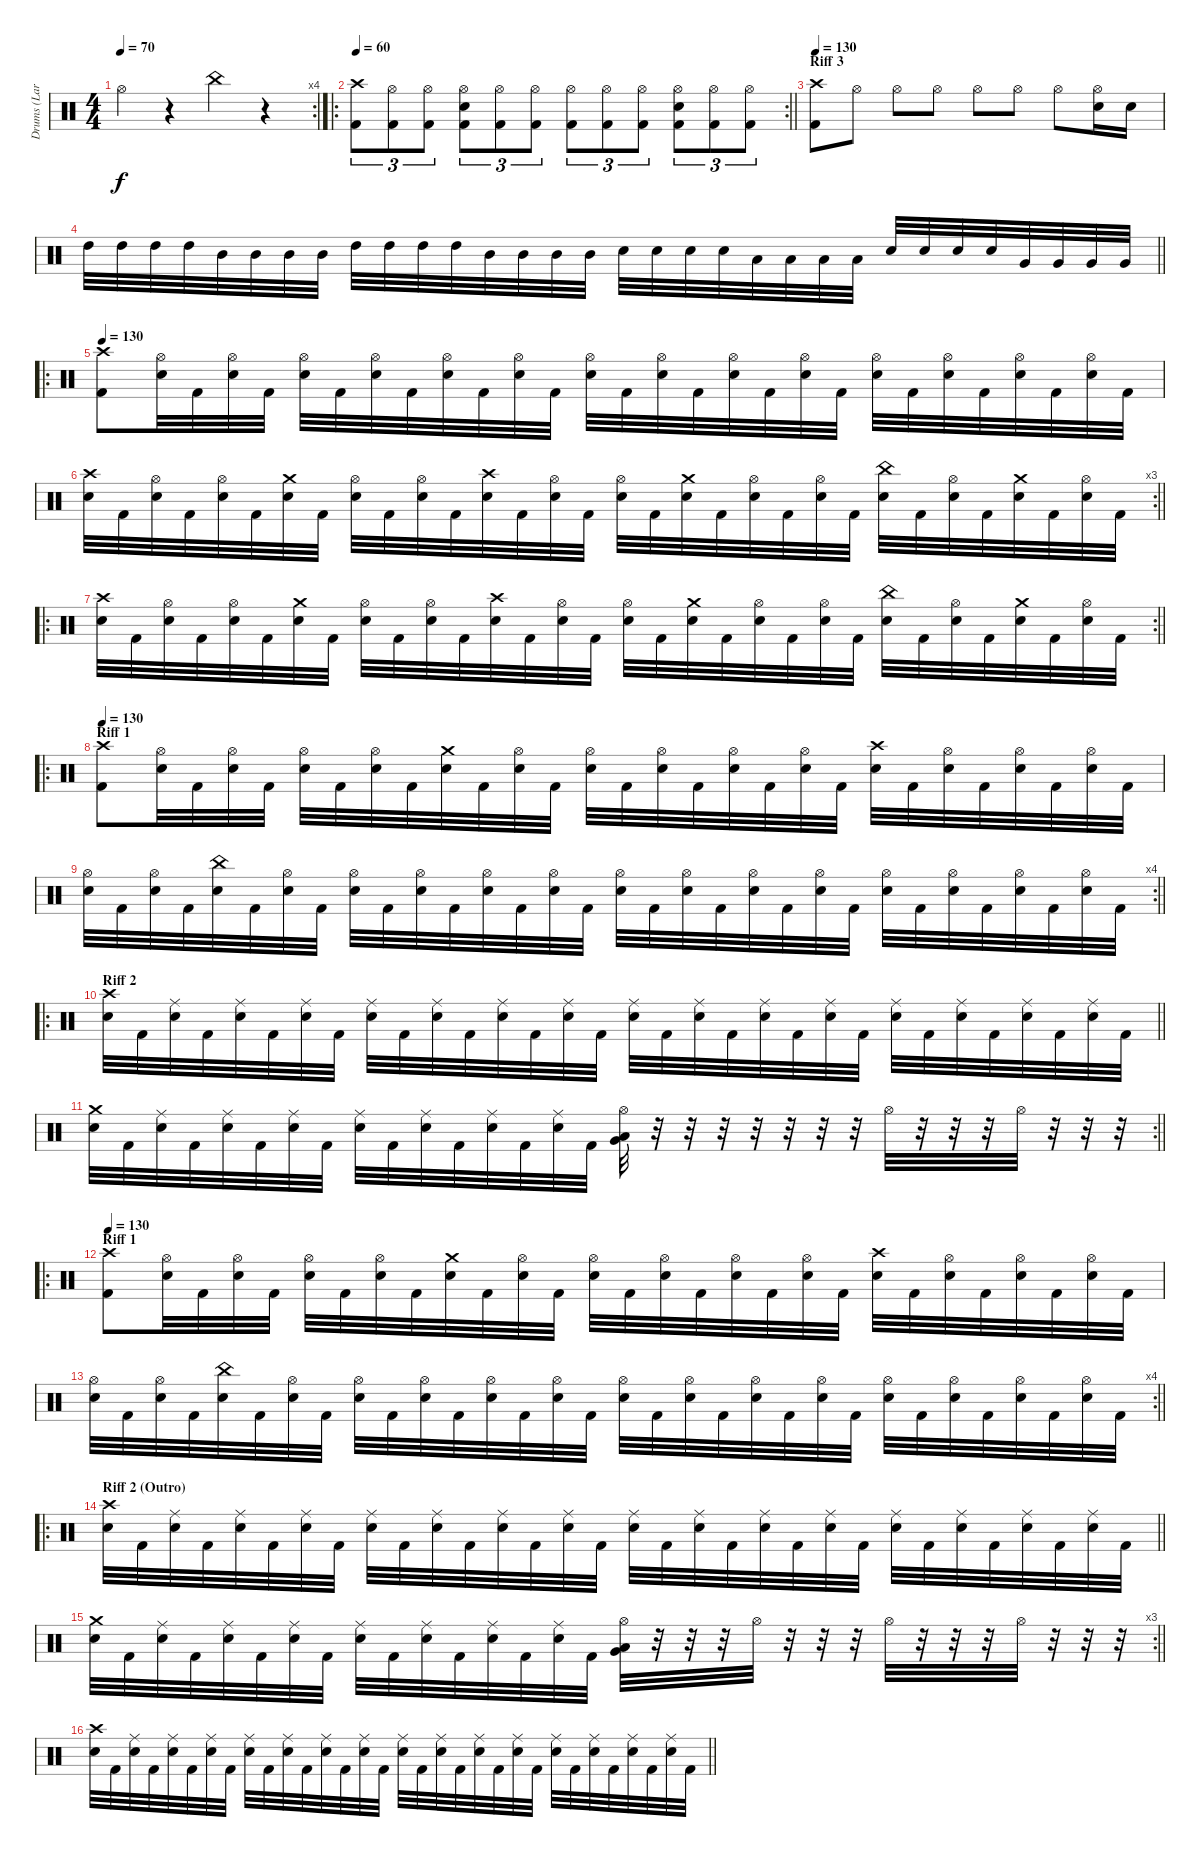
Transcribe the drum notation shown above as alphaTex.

\track ("Drums (Lars)" "Drums (Lar") {instrument percussion}
\staff {score}
\articulation defaults
\rc 4
\ts (4 4)
\tempo 70
\clef neutral
\ks c "Hi-Hat (open)".4{dy f}
r.4 "China (hit)".4 r.4 |
\ro
\rc 2
\tempo 60
\barLineRight lightlight
("Crash high (hit)" "Kick (hit) 2").8{tu (3 2)} ("Hi-Hat (open)" "Kick (hit) 2").8{tu (3 2)} ("Hi-Hat (open)" "Kick (hit) 2").8{tu (3 2)} ("Hi-Hat (open)" "Snare (hit) 2" "Kick (hit) 2").8{tu (3 2)} ("Hi-Hat (open)" "Kick (hit) 2").8{tu (3 2)} ("Hi-Hat (open)" "Kick (hit) 2").8{tu (3 2)} ("Hi-Hat (open)" "Kick (hit) 2").8{tu (3 2)} ("Hi-Hat (open)" "Kick (hit) 2").8{tu (3 2)} ("Hi-Hat (open)" "Kick (hit) 2").8{tu (3 2)} ("Hi-Hat (open)" "Snare (hit) 2" "Kick (hit) 2").8{tu (3 2)} ("Hi-Hat (open)" "Kick (hit) 2").8{tu (3 2)} ("Hi-Hat (open)" "Kick (hit) 2").8{tu (3 2)} |
\section ("" "Riff 3")
\tempo 130
("Crash high (hit)" "Kick (hit) 2").8 "Hi-Hat (open)".8 "Hi-Hat (open)".8 "Hi-Hat (open)".8 "Hi-Hat (open)".8 "Hi-Hat (open)".8 "Hi-Hat (open)".8 ("Hi-Hat (open)" "Snare (hit) 2").16 "Snare (hit) 2".16 |
\barLineRight lightlight "High Tom (hit)".32 "High Tom (hit)".32 "High Tom (hit)".32 "High Tom (hit)".32 "Mid Tom (hit)".32 "Mid Tom (hit)".32 "Mid Tom (hit)".32 "Mid Tom (hit)".32 "High Tom (hit)".32 "High Tom (hit)".32 "High Tom (hit)".32 "High Tom (hit)".32 "Mid Tom (hit)".32 "Mid Tom (hit)".32 "Mid Tom (hit)".32 "Mid Tom (hit)".32 "Snare (hit) 2".32 "Snare (hit) 2".32 "Snare (hit) 2".32 "Snare (hit) 2".32 "Low Tom (hit)".32 "Low Tom (hit)".32 "Low Tom (hit)".32 "Low Tom (hit)".32 "Snare (hit) 2".32 "Snare (hit) 2".32 "Snare (hit) 2".32 "Snare (hit) 2".32 "Very Low Tom (hit)".32 "Very Low Tom (hit)".32 "Very Low Tom (hit)".32 "Very Low Tom (hit)".32
|
\ro
\tempo 130
("Crash high (hit)" "Kick (hit) 2").8 ("Hi-Hat (open)" "Snare (hit) 2").32 "Kick (hit) 2".32 ("Hi-Hat (open)" "Snare (hit) 2").32 "Kick (hit) 2".32 ("Hi-Hat (open)" "Snare (hit) 2").32 "Kick (hit) 2".32 ("Hi-Hat (open)" "Snare (hit) 2").32 "Kick (hit) 2".32 ("Hi-Hat (open)" "Snare (hit) 2").32 "Kick (hit) 2".32 ("Hi-Hat (open)" "Snare (hit) 2").32 "Kick (hit) 2".32 ("Hi-Hat (open)" "Snare (hit) 2").32 "Kick (hit) 2".32 ("Hi-Hat (open)" "Snare (hit) 2").32 "Kick (hit) 2".32 ("Hi-Hat (open)" "Snare (hit) 2").32 "Kick (hit) 2".32 ("Hi-Hat (open)" "Snare (hit) 2").32 "Kick (hit) 2".32 ("Hi-Hat (open)" "Snare (hit) 2").32 "Kick (hit) 2".32 ("Hi-Hat (open)" "Snare (hit) 2").32 "Kick (hit) 2".32 ("Hi-Hat (open)" "Snare (hit) 2").32 "Kick (hit) 2".32 ("Hi-Hat (open)" "Snare (hit) 2").32 "Kick (hit) 2".32 |
\rc 3
\barLineRight lightlight
("Crash high (hit)" "Snare (hit) 2").32 "Kick (hit) 2".32 ("Hi-Hat (open)" "Snare (hit) 2").32 "Kick (hit) 2".32 ("Hi-Hat (open)" "Snare (hit) 2").32 "Kick (hit) 2".32 ("Crash medium (hit)" "Snare (hit) 2").32 "Kick (hit) 2".32 ("Hi-Hat (open)" "Snare (hit) 2").32 "Kick (hit) 2".32 ("Hi-Hat (open)" "Snare (hit) 2").32 "Kick (hit) 2".32 ("Crash high (hit)" "Snare (hit) 2").32 "Kick (hit) 2".32 ("Hi-Hat (open)" "Snare (hit) 2").32 "Kick (hit) 2".32 ("Hi-Hat (open)" "Snare (hit) 2").32 "Kick (hit) 2".32 ("Crash medium (hit)" "Snare (hit) 2").32 "Kick (hit) 2".32 ("Hi-Hat (open)" "Snare (hit) 2").32 "Kick (hit) 2".32 ("Hi-Hat (open)" "Snare (hit) 2").32 "Kick (hit) 2".32 ("China (hit)" "Snare (hit) 2").32 "Kick (hit) 2".32 ("Hi-Hat (open)" "Snare (hit) 2").32 "Kick (hit) 2".32 ("Crash medium (hit)" "Snare (hit) 2").32 "Kick (hit) 2".32 ("Hi-Hat (open)" "Snare (hit) 2").32 "Kick (hit) 2".32 |
\ro
\rc 2
\section ("" "")
\barLineRight lightlight
("Crash high (hit)" "Snare (hit) 2").32 "Kick (hit) 2".32 ("Hi-Hat (open)" "Snare (hit) 2").32 "Kick (hit) 2".32 ("Hi-Hat (open)" "Snare (hit) 2").32 "Kick (hit) 2".32 ("Crash medium (hit)" "Snare (hit) 2").32 "Kick (hit) 2".32 ("Hi-Hat (open)" "Snare (hit) 2").32 "Kick (hit) 2".32 ("Hi-Hat (open)" "Snare (hit) 2").32 "Kick (hit) 2".32 ("Crash high (hit)" "Snare (hit) 2").32 "Kick (hit) 2".32 ("Hi-Hat (open)" "Snare (hit) 2").32 "Kick (hit) 2".32 ("Hi-Hat (open)" "Snare (hit) 2").32 "Kick (hit) 2".32 ("Crash medium (hit)" "Snare (hit) 2").32 "Kick (hit) 2".32 ("Hi-Hat (open)" "Snare (hit) 2").32 "Kick (hit) 2".32 ("Hi-Hat (open)" "Snare (hit) 2").32 "Kick (hit) 2".32 ("China (hit)" "Snare (hit) 2").32 "Kick (hit) 2".32 ("Hi-Hat (open)" "Snare (hit) 2").32 "Kick (hit) 2".32 ("Crash medium (hit)" "Snare (hit) 2").32 "Kick (hit) 2".32 ("Hi-Hat (open)" "Snare (hit) 2").32 "Kick (hit) 2".32 |
\ro
\section ("" "Riff 1")
\tempo 130
("Crash high (hit)" "Kick (hit) 2").8 ("Hi-Hat (open)" "Snare (hit) 2").32 "Kick (hit) 2".32 ("Hi-Hat (open)" "Snare (hit) 2").32 "Kick (hit) 2".32 ("Hi-Hat (open)" "Snare (hit) 2").32 "Kick (hit) 2".32 ("Hi-Hat (open)" "Snare (hit) 2").32 "Kick (hit) 2".32 ("Crash medium (hit)" "Snare (hit) 2").32 "Kick (hit) 2".32 ("Hi-Hat (open)" "Snare (hit) 2").32 "Kick (hit) 2".32 ("Hi-Hat (open)" "Snare (hit) 2").32 "Kick (hit) 2".32 ("Hi-Hat (open)" "Snare (hit) 2").32 "Kick (hit) 2".32 ("Hi-Hat (open)" "Snare (hit) 2").32 "Kick (hit) 2".32 ("Hi-Hat (open)" "Snare (hit) 2").32 "Kick (hit) 2".32 ("Crash high (hit)" "Snare (hit) 2").32 "Kick (hit) 2".32 ("Hi-Hat (open)" "Snare (hit) 2").32 "Kick (hit) 2".32 ("Hi-Hat (open)" "Snare (hit) 2").32 "Kick (hit) 2".32 ("Hi-Hat (open)" "Snare (hit) 2").32 "Kick (hit) 2".32 |
\rc 4
\barLineRight lightlight
("Hi-Hat (open)" "Snare (hit) 2").32 "Kick (hit) 2".32 ("Hi-Hat (open)" "Snare (hit) 2").32 "Kick (hit) 2".32 ("China (hit)" "Snare (hit) 2").32 "Kick (hit) 2".32 ("Hi-Hat (open)" "Snare (hit) 2").32 "Kick (hit) 2".32 ("Hi-Hat (open)" "Snare (hit) 2").32 "Kick (hit) 2".32 ("Hi-Hat (open)" "Snare (hit) 2").32 "Kick (hit) 2".32 ("Hi-Hat (open)" "Snare (hit) 2").32 "Kick (hit) 2".32 ("Hi-Hat (open)" "Snare (hit) 2").32 "Kick (hit) 2".32 ("Hi-Hat (open)" "Snare (hit) 2").32 "Kick (hit) 2".32 ("Hi-Hat (open)" "Snare (hit) 2").32 "Kick (hit) 2".32 ("Hi-Hat (open)" "Snare (hit) 2").32 "Kick (hit) 2".32 ("Hi-Hat (open)" "Snare (hit) 2").32 "Kick (hit) 2".32 ("Hi-Hat (open)" "Snare (hit) 2").32 "Kick (hit) 2".32 ("Hi-Hat (open)" "Snare (hit) 2").32 "Kick (hit) 2".32 ("Hi-Hat (open)" "Snare (hit) 2").32 "Kick (hit) 2".32 ("Hi-Hat (open)" "Snare (hit) 2").32 "Kick (hit) 2".32 |
\ro
\section ("" "Riff 2")
\barLineRight lightlight
("Crash high (hit)" "Snare (hit) 2").32 "Kick (hit) 2".32 ("Ride (middle)" "Snare (hit) 2").32 "Kick (hit) 2".32 ("Ride (middle)" "Snare (hit) 2").32 "Kick (hit) 2".32 ("Ride (middle)" "Snare (hit) 2").32 "Kick (hit) 2".32 ("Ride (middle)" "Snare (hit) 2").32 "Kick (hit) 2".32 ("Ride (middle)" "Snare (hit) 2").32 "Kick (hit) 2".32 ("Ride (middle)" "Snare (hit) 2").32 "Kick (hit) 2".32 ("Ride (middle)" "Snare (hit) 2").32 "Kick (hit) 2".32 ("Ride (middle)" "Snare (hit) 2").32 "Kick (hit) 2".32 ("Ride (middle)" "Snare (hit) 2").32 "Kick (hit) 2".32 ("Ride (middle)" "Snare (hit) 2").32 "Kick (hit) 2".32 ("Ride (middle)" "Snare (hit) 2").32 "Kick (hit) 2".32 ("Ride (middle)" "Snare (hit) 2").32 "Kick (hit) 2".32 ("Ride (middle)" "Snare (hit) 2").32 "Kick (hit) 2".32 ("Ride (middle)" "Snare (hit) 2").32 "Kick (hit) 2".32 ("Ride (middle)" "Snare (hit) 2").32 "Kick (hit) 2".32 |
\rc 2
\barLineRight lightlight
("Crash medium (hit)" "Snare (hit) 2").32 "Kick (hit) 2".32 ("Ride (middle)" "Snare (hit) 2").32 "Kick (hit) 2".32 ("Ride (middle)" "Snare (hit) 2").32 "Kick (hit) 2".32 ("Ride (middle)" "Snare (hit) 2").32 "Kick (hit) 2".32 ("Ride (middle)" "Snare (hit) 2").32 "Kick (hit) 2".32 ("Ride (middle)" "Snare (hit) 2").32 "Kick (hit) 2".32 ("Ride (middle)" "Snare (hit) 2").32 "Kick (hit) 2".32 ("Ride (middle)" "Snare (hit) 2").32 "Kick (hit) 2".32 ("Hi-Hat (open)" "Very Low Tom (hit)" "Low Floor Tom (hit)").32 r.32 r.32 r.32 r.32 r.32 r.32 r.32 "Hi-Hat (open)".32 r.32 r.32 r.32 "Hi-Hat (open)".32 r.32 r.32 r.32 |
\ro
\section ("" "Riff 1")
\tempo 130
("Crash high (hit)" "Kick (hit) 2").8 ("Hi-Hat (open)" "Snare (hit) 2").32 "Kick (hit) 2".32 ("Hi-Hat (open)" "Snare (hit) 2").32 "Kick (hit) 2".32 ("Hi-Hat (open)" "Snare (hit) 2").32 "Kick (hit) 2".32 ("Hi-Hat (open)" "Snare (hit) 2").32 "Kick (hit) 2".32 ("Crash medium (hit)" "Snare (hit) 2").32 "Kick (hit) 2".32 ("Hi-Hat (open)" "Snare (hit) 2").32 "Kick (hit) 2".32 ("Hi-Hat (open)" "Snare (hit) 2").32 "Kick (hit) 2".32 ("Hi-Hat (open)" "Snare (hit) 2").32 "Kick (hit) 2".32 ("Hi-Hat (open)" "Snare (hit) 2").32 "Kick (hit) 2".32 ("Hi-Hat (open)" "Snare (hit) 2").32 "Kick (hit) 2".32 ("Crash high (hit)" "Snare (hit) 2").32 "Kick (hit) 2".32 ("Hi-Hat (open)" "Snare (hit) 2").32 "Kick (hit) 2".32 ("Hi-Hat (open)" "Snare (hit) 2").32 "Kick (hit) 2".32 ("Hi-Hat (open)" "Snare (hit) 2").32 "Kick (hit) 2".32 |
\rc 4
\barLineRight lightlight
("Hi-Hat (open)" "Snare (hit) 2").32 "Kick (hit) 2".32 ("Hi-Hat (open)" "Snare (hit) 2").32 "Kick (hit) 2".32 ("China (hit)" "Snare (hit) 2").32 "Kick (hit) 2".32 ("Hi-Hat (open)" "Snare (hit) 2").32 "Kick (hit) 2".32 ("Hi-Hat (open)" "Snare (hit) 2").32 "Kick (hit) 2".32 ("Hi-Hat (open)" "Snare (hit) 2").32 "Kick (hit) 2".32 ("Hi-Hat (open)" "Snare (hit) 2").32 "Kick (hit) 2".32 ("Hi-Hat (open)" "Snare (hit) 2").32 "Kick (hit) 2".32 ("Hi-Hat (open)" "Snare (hit) 2").32 "Kick (hit) 2".32 ("Hi-Hat (open)" "Snare (hit) 2").32 "Kick (hit) 2".32 ("Hi-Hat (open)" "Snare (hit) 2").32 "Kick (hit) 2".32 ("Hi-Hat (open)" "Snare (hit) 2").32 "Kick (hit) 2".32 ("Hi-Hat (open)" "Snare (hit) 2").32 "Kick (hit) 2".32 ("Hi-Hat (open)" "Snare (hit) 2").32 "Kick (hit) 2".32 ("Hi-Hat (open)" "Snare (hit) 2").32 "Kick (hit) 2".32 ("Hi-Hat (open)" "Snare (hit) 2").32 "Kick (hit) 2".32 |
\ro
\section ("" "Riff 2 (Outro)")
\barLineRight lightlight
("Crash high (hit)" "Snare (hit) 2").32 "Kick (hit) 2".32 ("Ride (middle)" "Snare (hit) 2").32 "Kick (hit) 2".32 ("Ride (middle)" "Snare (hit) 2").32 "Kick (hit) 2".32 ("Ride (middle)" "Snare (hit) 2").32 "Kick (hit) 2".32 ("Ride (middle)" "Snare (hit) 2").32 "Kick (hit) 2".32 ("Ride (middle)" "Snare (hit) 2").32 "Kick (hit) 2".32 ("Ride (middle)" "Snare (hit) 2").32 "Kick (hit) 2".32 ("Ride (middle)" "Snare (hit) 2").32 "Kick (hit) 2".32 ("Ride (middle)" "Snare (hit) 2").32 "Kick (hit) 2".32 ("Ride (middle)" "Snare (hit) 2").32 "Kick (hit) 2".32 ("Ride (middle)" "Snare (hit) 2").32 "Kick (hit) 2".32 ("Ride (middle)" "Snare (hit) 2").32 "Kick (hit) 2".32 ("Ride (middle)" "Snare (hit) 2").32 "Kick (hit) 2".32 ("Ride (middle)" "Snare (hit) 2").32 "Kick (hit) 2".32 ("Ride (middle)" "Snare (hit) 2").32 "Kick (hit) 2".32 ("Ride (middle)" "Snare (hit) 2").32 "Kick (hit) 2".32 |
\rc 3
\barLineRight lightlight
("Crash medium (hit)" "Snare (hit) 2").32 "Kick (hit) 2".32 ("Ride (middle)" "Snare (hit) 2").32 "Kick (hit) 2".32 ("Ride (middle)" "Snare (hit) 2").32 "Kick (hit) 2".32 ("Ride (middle)" "Snare (hit) 2").32 "Kick (hit) 2".32 ("Ride (middle)" "Snare (hit) 2").32 "Kick (hit) 2".32 ("Ride (middle)" "Snare (hit) 2").32 "Kick (hit) 2".32 ("Ride (middle)" "Snare (hit) 2").32 "Kick (hit) 2".32 ("Ride (middle)" "Snare (hit) 2").32 "Kick (hit) 2".32 ("Hi-Hat (open)" "Very Low Tom (hit)" "Low Floor Tom (hit)").32 r.32 r.32 r.32 "Hi-Hat (open)".32 r.32 r.32 r.32 "Hi-Hat (open)".32 r.32 r.32 r.32 "Hi-Hat (open)".32 r.32 r.32 r.32 |
\barLineRight lightlight
("Crash high (hit)" "Snare (hit) 2").32 "Kick (hit) 2".32 ("Ride (middle)" "Snare (hit) 2").32 "Kick (hit) 2".32 ("Ride (middle)" "Snare (hit) 2").32 "Kick (hit) 2".32 ("Ride (middle)" "Snare (hit) 2").32 "Kick (hit) 2".32 ("Ride (middle)" "Snare (hit) 2").32 "Kick (hit) 2".32 ("Ride (middle)" "Snare (hit) 2").32 "Kick (hit) 2".32 ("Ride (middle)" "Snare (hit) 2").32 "Kick (hit) 2".32 ("Ride (middle)" "Snare (hit) 2").32 "Kick (hit) 2".32 ("Ride (middle)" "Snare (hit) 2").32 "Kick (hit) 2".32 ("Ride (middle)" "Snare (hit) 2").32 "Kick (hit) 2".32 ("Ride (middle)" "Snare (hit) 2").32 "Kick (hit) 2".32 ("Ride (middle)" "Snare (hit) 2").32 "Kick (hit) 2".32 ("Ride (middle)" "Snare (hit) 2").32 "Kick (hit) 2".32 ("Ride (middle)" "Snare (hit) 2").32 "Kick (hit) 2".32 ("Ride (middle)" "Snare (hit) 2").32 "Kick (hit) 2".32 ("Ride (middle)" "Snare (hit) 2").32 "Kick (hit) 2".32
